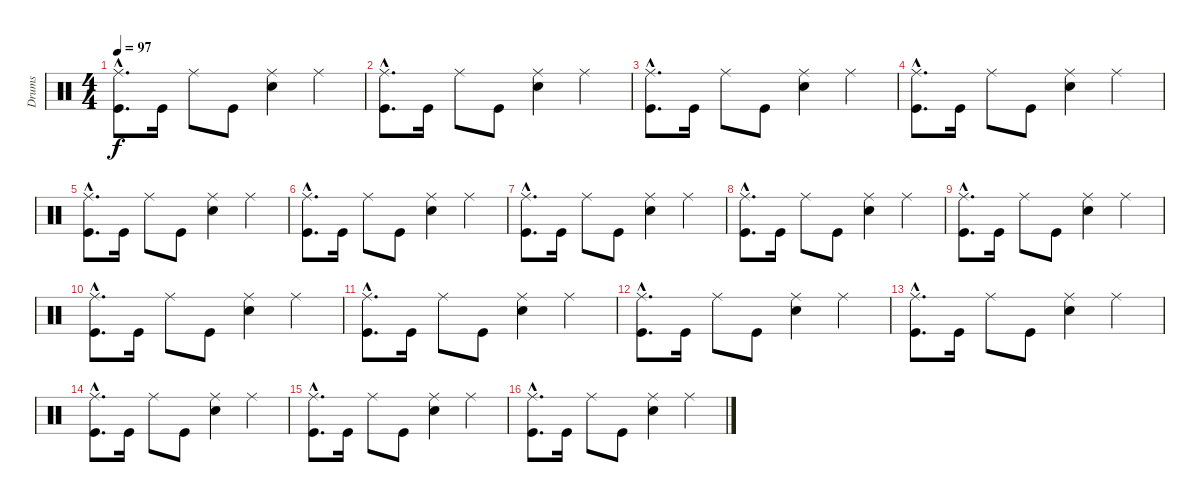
\track ("Drums " "Drums ") {instrument percussion}
\staff {score}
\articulation defaults
\ts (4 4)
\tempo 97
\clef neutral
\ks c
("Ride (middle)"{hac} "Kick (hit)"{hac}).8{d dy f} "Kick (hit)".16 "Ride (middle)".8 "Kick (hit)".8 ("Electric Snare (hit)" "Ride (middle)").4 "Ride (middle)".4 |
("Ride (middle)"{hac} "Kick (hit)"{hac}).8{d} "Kick (hit)".16 "Ride (middle)".8 "Kick (hit)".8 ("Electric Snare (hit)" "Ride (middle)").4 "Ride (middle)".4 |
("Ride (middle)"{hac} "Kick (hit)"{hac}).8{d} "Kick (hit)".16 "Ride (middle)".8 "Kick (hit)".8 ("Electric Snare (hit)" "Ride (middle)").4 "Ride (middle)".4 |
("Ride (middle)"{hac} "Kick (hit)"{hac}).8{d} "Kick (hit)".16 "Ride (middle)".8 "Kick (hit)".8 ("Electric Snare (hit)" "Ride (middle)").4 "Ride (middle)".4 |
("Ride (middle)"{hac} "Kick (hit)"{hac}).8{d} "Kick (hit)".16 "Ride (middle)".8 "Kick (hit)".8 ("Electric Snare (hit)" "Ride (middle)").4 "Ride (middle)".4 |
("Ride (middle)"{hac} "Kick (hit)"{hac}).8{d} "Kick (hit)".16 "Ride (middle)".8 "Kick (hit)".8 ("Electric Snare (hit)" "Ride (middle)").4 "Ride (middle)".4 |
("Ride (middle)"{hac} "Kick (hit)"{hac}).8{d} "Kick (hit)".16 "Ride (middle)".8 "Kick (hit)".8 ("Electric Snare (hit)" "Ride (middle)").4 "Ride (middle)".4 |
("Ride (middle)"{hac} "Kick (hit)"{hac}).8{d} "Kick (hit)".16 "Ride (middle)".8 "Kick (hit)".8 ("Electric Snare (hit)" "Ride (middle)").4 "Ride (middle)".4 |
("Ride (middle)"{hac} "Kick (hit)"{hac}).8{d} "Kick (hit)".16 "Ride (middle)".8 "Kick (hit)".8 ("Electric Snare (hit)" "Ride (middle)").4 "Ride (middle)".4 |
("Ride (middle)"{hac} "Kick (hit)"{hac}).8{d} "Kick (hit)".16 "Ride (middle)".8 "Kick (hit)".8 ("Electric Snare (hit)" "Ride (middle)").4 "Ride (middle)".4 |
("Ride (middle)"{hac} "Kick (hit)"{hac}).8{d} "Kick (hit)".16 "Ride (middle)".8 "Kick (hit)".8 ("Electric Snare (hit)" "Ride (middle)").4 "Ride (middle)".4 |
("Ride (middle)"{hac} "Kick (hit)"{hac}).8{d} "Kick (hit)".16 "Ride (middle)".8 "Kick (hit)".8 ("Electric Snare (hit)" "Ride (middle)").4 "Ride (middle)".4 |
("Ride (middle)"{hac} "Kick (hit)"{hac}).8{d} "Kick (hit)".16 "Ride (middle)".8 "Kick (hit)".8 ("Electric Snare (hit)" "Ride (middle)").4 "Ride (middle)".4 |
("Ride (middle)"{hac} "Kick (hit)"{hac}).8{d} "Kick (hit)".16 "Ride (middle)".8 "Kick (hit)".8 ("Electric Snare (hit)" "Ride (middle)").4 "Ride (middle)".4 |
("Ride (middle)"{hac} "Kick (hit)"{hac}).8{d} "Kick (hit)".16 "Ride (middle)".8 "Kick (hit)".8 ("Electric Snare (hit)" "Ride (middle)").4 "Ride (middle)".4 |
("Ride (middle)"{hac} "Kick (hit)"{hac}).8{d} "Kick (hit)".16 "Ride (middle)".8 "Kick (hit)".8 ("Electric Snare (hit)" "Ride (middle)").4 "Ride (middle)".4
